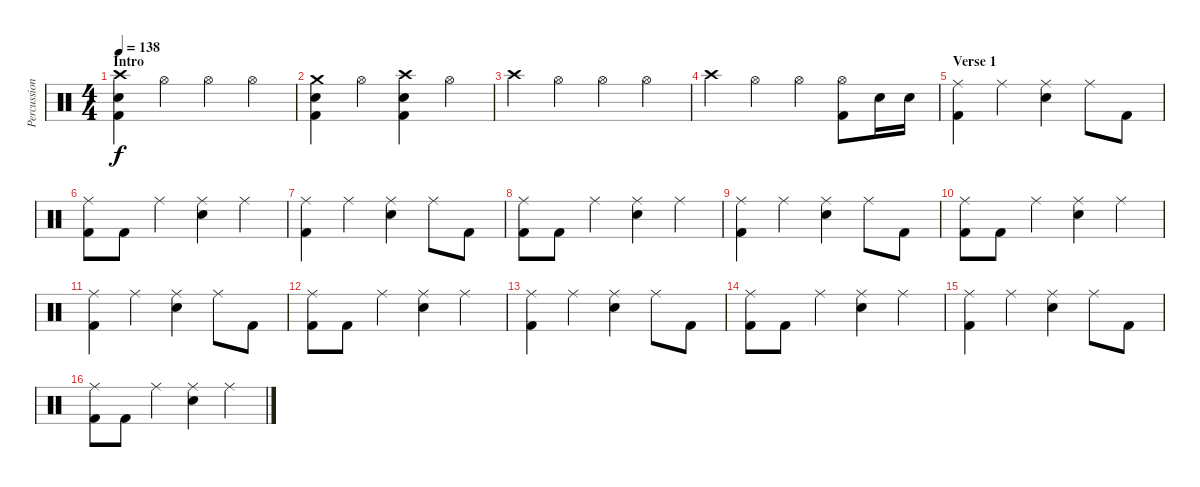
\track ("Percussion" "Percussion") {instrument percussion}
\staff {score}
\articulation defaults
\ts (4 4)
\section ("" "Intro")
\tempo 138
\clef neutral
\ks c
("Crash high (hit)" "Electric Snare (hit)" "Kick (hit) 2").4{dy f} "Hi-Hat (open)".4 "Hi-Hat (open)".4 "Hi-Hat (open)".4 |
("Crash medium (hit)" "Electric Snare (hit)" "Kick (hit) 2").4 "Hi-Hat (open)".4 ("Crash high (hit)" "Electric Snare (hit)" "Kick (hit) 2").4 "Hi-Hat (open)".4 |
"Crash high (hit)".4 "Hi-Hat (open)".4 "Hi-Hat (open)".4 "Hi-Hat (open)".4 |
"Crash high (hit)".4 "Hi-Hat (open)".4 "Hi-Hat (open)".4 ("Hi-Hat (open)" "Kick (hit) 2").8 "Electric Snare (hit)".16 "Electric Snare (hit)".16 |
\section ("" "Verse 1")
("Ride (middle)" "Kick (hit) 2").4 "Ride (middle)".4 ("Ride (middle)" "Electric Snare (hit)").4 "Ride (middle)".8 "Kick (hit) 2".8 |
("Ride (middle)" "Kick (hit) 2").8 "Kick (hit) 2".8 "Ride (middle)".4 ("Ride (middle)" "Electric Snare (hit)").4 "Ride (middle)".4 |
("Ride (middle)" "Kick (hit) 2").4 "Ride (middle)".4 ("Ride (middle)" "Electric Snare (hit)").4 "Ride (middle)".8 "Kick (hit) 2".8 |
("Ride (middle)" "Kick (hit) 2").8 "Kick (hit) 2".8 "Ride (middle)".4 ("Ride (middle)" "Electric Snare (hit)").4 "Ride (middle)".4 |
("Ride (middle)" "Kick (hit) 2").4 "Ride (middle)".4 ("Ride (middle)" "Electric Snare (hit)").4 "Ride (middle)".8 "Kick (hit) 2".8 |
("Ride (middle)" "Kick (hit) 2").8 "Kick (hit) 2".8 "Ride (middle)".4 ("Ride (middle)" "Electric Snare (hit)").4 "Ride (middle)".4 |
("Ride (middle)" "Kick (hit) 2").4 "Ride (middle)".4 ("Ride (middle)" "Electric Snare (hit)").4 "Ride (middle)".8 "Kick (hit) 2".8 |
("Ride (middle)" "Kick (hit) 2").8 "Kick (hit) 2".8 "Ride (middle)".4 ("Ride (middle)" "Electric Snare (hit)").4 "Ride (middle)".4 |
("Ride (middle)" "Kick (hit) 2").4 "Ride (middle)".4 ("Ride (middle)" "Electric Snare (hit)").4 "Ride (middle)".8 "Kick (hit) 2".8 |
("Ride (middle)" "Kick (hit) 2").8 "Kick (hit) 2".8 "Ride (middle)".4 ("Ride (middle)" "Electric Snare (hit)").4 "Ride (middle)".4 |
("Ride (middle)" "Kick (hit) 2").4 "Ride (middle)".4 ("Ride (middle)" "Electric Snare (hit)").4 "Ride (middle)".8 "Kick (hit) 2".8 |
("Ride (middle)" "Kick (hit) 2").8 "Kick (hit) 2".8 "Ride (middle)".4 ("Ride (middle)" "Electric Snare (hit)").4 "Ride (middle)".4
